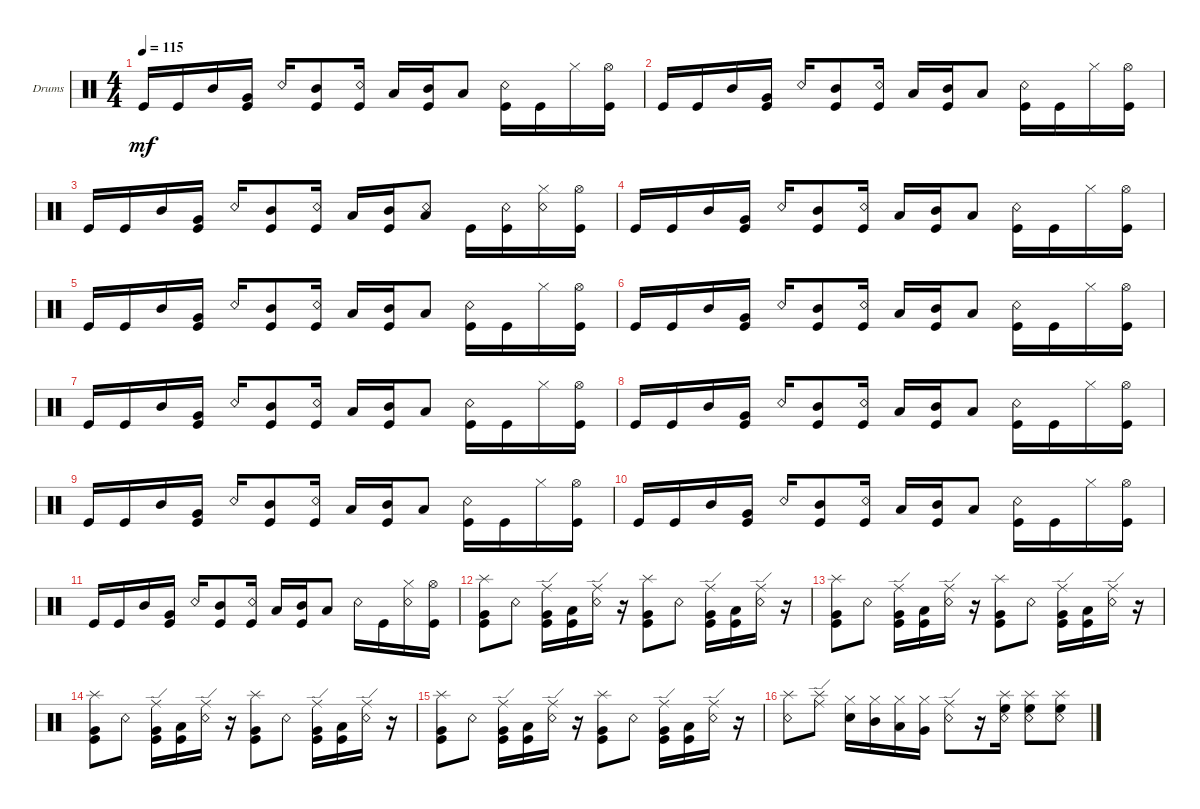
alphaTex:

\defaultSystemsLayout 4
\bracketExtendMode groupsimilarinstruments
\firstSystemTrackNameOrientation horizontal
\otherSystemsTrackNameOrientation horizontal
\track ("Drumkit" "Drums") {instrument percussion}
\staff {score}
\articulation defaults
\ts (4 4)
\tempo 115
\clef neutral
\scale
0.333333
\ks c "Kick (hit)".16{dy mf} "Kick (hit)".16 "Mid Tom (hit)".16
("Very Low Tom (hit)" "Kick (hit)").16 "Snare (rim shot)".16 ("Kick (hit)" "Mid Tom (hit)").8 ("Snare (rim shot)" "Kick (hit)").16 "Low Tom (hit)".16 ("Mid Tom (hit)" "Kick (hit)").16 "Low Tom (hit)".8 ("Snare (rim shot)" "Kick (hit)").16 "Kick (hit)".16 "Hi-Hat (closed)".16 ("Hi-Hat (open)" "Kick (hit)").16 |
\scale
0.333333 "Kick (hit)".16 "Kick (hit)".16 "Mid Tom (hit)".16 ("Very Low Tom (hit)" "Kick (hit)").16 "Snare (rim shot)".16 ("Kick (hit)" "Mid Tom (hit)").8 ("Snare (rim shot)" "Kick (hit)").16 "Low Tom (hit)".16 ("Mid Tom (hit)" "Kick (hit)").16 "Low Tom (hit)".8 ("Snare (rim shot)" "Kick (hit)").16 "Kick (hit)".16 "Hi-Hat (closed)".16 ("Hi-Hat (open)" "Kick (hit)").16 |
\scale
0.333333 "Kick (hit)".16 "Kick (hit)".16 "Mid Tom (hit)".16 ("Very Low Tom (hit)" "Kick (hit)").16 "Snare (rim shot)".16 ("Kick (hit)" "Mid Tom (hit)").8 ("Snare (rim shot)" "Kick (hit)").16 "Low Tom (hit)".16 ("Mid Tom (hit)" "Kick (hit)").16 ("Low Tom (hit)" "Snare (rim shot)").8 "Kick (hit)".16 ("Kick (hit)" "Snare (rim shot)").16 ("Hi-Hat (closed)" "Snare (rim shot)").16 ("Hi-Hat (open)" "Kick (hit)").16 |
\scale
0.333333 "Kick (hit)".16 "Kick (hit)".16 "Mid Tom (hit)".16 ("Very Low Tom (hit)" "Kick (hit)").16 "Snare (rim shot)".16 ("Kick (hit)" "Mid Tom (hit)").8 ("Snare (rim shot)" "Kick (hit)").16 "Low Tom (hit)".16 ("Mid Tom (hit)" "Kick (hit)").16 "Low Tom (hit)".8 ("Snare (rim shot)" "Kick (hit)").16 "Kick (hit)".16 "Hi-Hat (closed)".16 ("Hi-Hat (open)" "Kick (hit)").16 |
\scale
0.333333 "Kick (hit)".16 "Kick (hit)".16 "Mid Tom (hit)".16 ("Very Low Tom (hit)" "Kick (hit)").16 "Snare (rim shot)".16 ("Kick (hit)" "Mid Tom (hit)").8 ("Snare (rim shot)" "Kick (hit)").16 "Low Tom (hit)".16 ("Mid Tom (hit)" "Kick (hit)").16 "Low Tom (hit)".8 ("Snare (rim shot)" "Kick (hit)").16 "Kick (hit)".16 "Hi-Hat (closed)".16 ("Hi-Hat (open)" "Kick (hit)").16 |
\scale
0.333333 "Kick (hit)".16 "Kick (hit)".16 "Mid Tom (hit)".16 ("Very Low Tom (hit)" "Kick (hit)").16 "Snare (rim shot)".16 ("Kick (hit)" "Mid Tom (hit)").8 ("Snare (rim shot)" "Kick (hit)").16 "Low Tom (hit)".16 ("Mid Tom (hit)" "Kick (hit)").16 "Low Tom (hit)".8 ("Snare (rim shot)" "Kick (hit)").16 "Kick (hit)".16 "Hi-Hat (closed)".16 ("Hi-Hat (open)" "Kick (hit)").16 |
\scale
0.333333 "Kick (hit)".16 "Kick (hit)".16 "Mid Tom (hit)".16 ("Very Low Tom (hit)" "Kick (hit)").16 "Snare (rim shot)".16 ("Kick (hit)" "Mid Tom (hit)").8 ("Snare (rim shot)" "Kick (hit)").16 "Low Tom (hit)".16 ("Mid Tom (hit)" "Kick (hit)").16 "Low Tom (hit)".8 ("Snare (rim shot)" "Kick (hit)").16 "Kick (hit)".16 "Hi-Hat (closed)".16 ("Hi-Hat (open)" "Kick (hit)").16 |
\scale
0.333333 "Kick (hit)".16 "Kick (hit)".16 "Mid Tom (hit)".16 ("Very Low Tom (hit)" "Kick (hit)").16 "Snare (rim shot)".16 ("Kick (hit)" "Mid Tom (hit)").8 ("Snare (rim shot)" "Kick (hit)").16 "Low Tom (hit)".16 ("Mid Tom (hit)" "Kick (hit)").16 "Low Tom (hit)".8 ("Snare (rim shot)" "Kick (hit)").16 "Kick (hit)".16 "Hi-Hat (closed)".16 ("Hi-Hat (open)" "Kick (hit)").16 |
\scale
0.333333 "Kick (hit)".16 "Kick (hit)".16 "Mid Tom (hit)".16 ("Very Low Tom (hit)" "Kick (hit)").16 "Snare (rim shot)".16 ("Kick (hit)" "Mid Tom (hit)").8 ("Snare (rim shot)" "Kick (hit)").16 "Low Tom (hit)".16 ("Mid Tom (hit)" "Kick (hit)").16 "Low Tom (hit)".8 ("Snare (rim shot)" "Kick (hit)").16 "Kick (hit)".16 "Hi-Hat (closed)".16 ("Hi-Hat (open)" "Kick (hit)").16 |
\scale
0.333333 "Kick (hit)".16 "Kick (hit)".16 "Mid Tom (hit)".16 ("Very Low Tom (hit)" "Kick (hit)").16 "Snare (rim shot)".16 ("Kick (hit)" "Mid Tom (hit)").8 ("Snare (rim shot)" "Kick (hit)").16 "Low Tom (hit)".16 ("Mid Tom (hit)" "Kick (hit)").16 "Low Tom (hit)".8 ("Snare (rim shot)" "Kick (hit)").16 "Kick (hit)".16 "Hi-Hat (closed)".16 ("Hi-Hat (open)" "Kick (hit)").16 |
\scale
0.333333 "Kick (hit)".16 "Kick (hit)".16 "Mid Tom (hit)".16 ("Very Low Tom (hit)" "Kick (hit)").16 "Snare (rim shot)".16 ("Kick (hit)" "Mid Tom (hit)").8 ("Snare (rim shot)" "Kick (hit)").16 "Low Tom (hit)".16 ("Mid Tom (hit)" "Kick (hit)").16 "Low Tom (hit)".8 "Snare (rim shot)".16 "Kick (hit)".16 ("Hi-Hat (closed)" "Snare (rim shot)").16 ("Hi-Hat (open)" "Kick (hit)").16 |
\scale
0.333333 ("Splash (hit)" "Kick (hit)" "Very Low Tom (hit)").8 "Snare (rim shot)".8 ("Ride (edge)" "Kick (hit)" "Very Low Tom (hit)").16 ("Kick (hit)" "Low Tom (hit)").16 ("Snare (rim shot)" "Ride (edge)").16 r.16 ("Splash (hit)" "Kick (hit)" "Very Low Tom (hit)").8 "Snare (rim shot)".8 ("Ride (edge)" "Kick (hit)" "Very Low Tom (hit)").16 ("Kick (hit)" "Low Tom (hit)").16 ("Snare (rim shot)" "Ride (edge)").16 r.16 |
\scale
0.333333 ("Splash (hit)" "Kick (hit)" "Very Low Tom (hit)").8 "Snare (rim shot)".8 ("Ride (edge)" "Kick (hit)" "Very Low Tom (hit)").16 ("Kick (hit)" "Low Tom (hit)").16 ("Snare (rim shot)" "Ride (edge)").16 r.16 ("Splash (hit)" "Kick (hit)" "Very Low Tom (hit)").8 "Snare (rim shot)".8 ("Ride (edge)" "Kick (hit)" "Very Low Tom (hit)").16 ("Kick (hit)" "Low Tom (hit)").16 ("Snare (rim shot)" "Ride (edge)").16 r.16 |
\scale
0.333333 ("Splash (hit)" "Kick (hit)" "Very Low Tom (hit)").8 "Snare (rim shot)".8 ("Ride (edge)" "Kick (hit)" "Very Low Tom (hit)").16 ("Kick (hit)" "Low Tom (hit)").16 ("Snare (rim shot)" "Ride (edge)").16 r.16 ("Splash (hit)" "Kick (hit)" "Very Low Tom (hit)").8 "Snare (rim shot)".8 ("Ride (edge)" "Kick (hit)" "Very Low Tom (hit)").16 ("Kick (hit)" "Low Tom (hit)").16 ("Snare (rim shot)" "Ride (edge)").16 r.16 |
\scale
0.333333 ("Splash (hit)" "Kick (hit)" "Very Low Tom (hit)").8 "Snare (rim shot)".8 ("Ride (edge)" "Kick (hit)" "Very Low Tom (hit)").16 ("Kick (hit)" "Low Tom (hit)").16 ("Snare (rim shot)" "Ride (edge)").16 r.16 ("Splash (hit)" "Kick (hit)" "Very Low Tom (hit)").8 "Snare (rim shot)".8 ("Ride (edge)" "Kick (hit)" "Very Low Tom (hit)").16 ("Kick (hit)" "Low Tom (hit)").16 ("Snare (rim shot)" "Ride (edge)").16 r.16 |
\scale
0.333333 ("Snare (rim shot)" "Splash (hit)").8 ("Ride (edge)" "Splash (hit)").8 ("Snare (hit) 2" "Hi-Hat (closed)").16 ("Mid Tom (hit)" "Hi-Hat (closed)").16 ("Low Tom (hit)" "Hi-Hat (closed)").16 ("Hi-Hat (closed)" "Very Low Tom (hit)").16 ("Snare (rim shot)" "Ride (edge)").8 r.16 ("Snare (rim shot)" "High Floor Tom (hit)" "Splash (hit)").16 ("Snare (rim shot)" "High Floor Tom (hit)" "Splash (hit)").8 ("High Floor Tom (hit)" "Snare (rim shot)" "Splash (hit)").8
